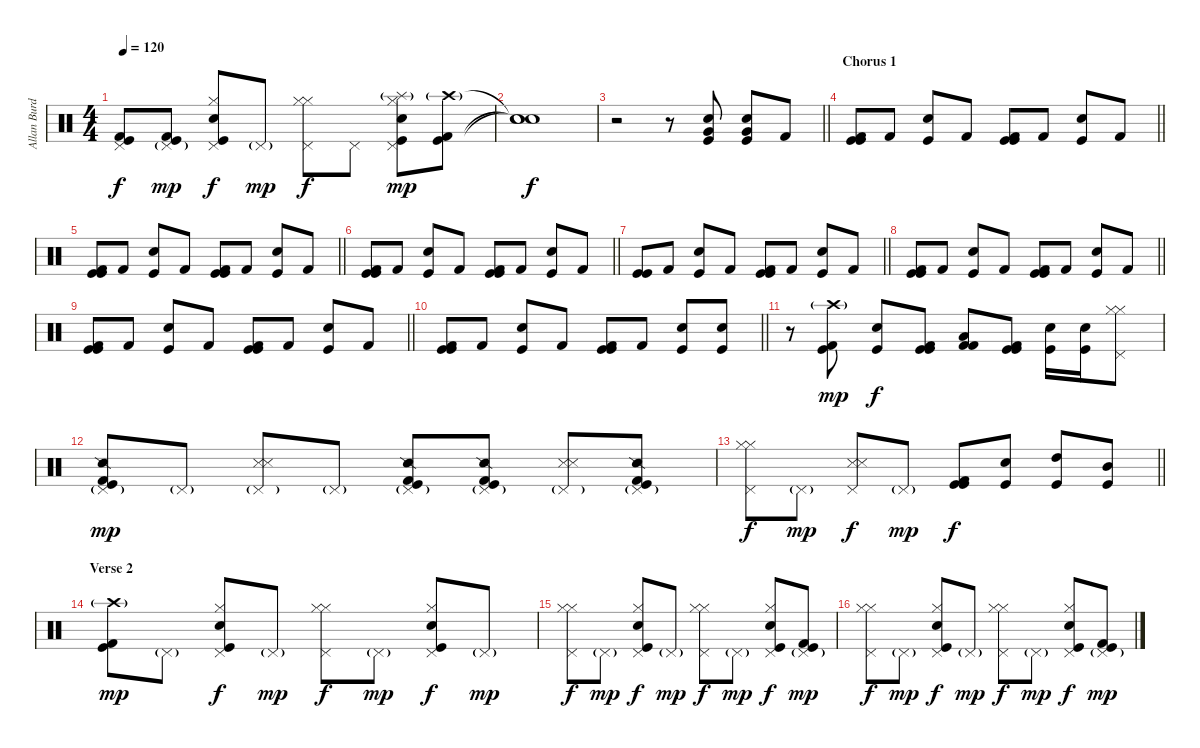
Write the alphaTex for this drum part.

\track ("Allan Burdeos(Drums)" "Allan Burd") {instrument percussion}
\staff {score}
\articulation defaults
\ts (4 4)
\tempo 120
\clef neutral
\ks c
("Pedal Hi-Hat (hit)" "Kick (hit) 2" "Kick (hit)").8{dy f} ("Pedal Hi-Hat (hit)"{g} "Kick (hit) 2" "Kick (hit)").8{dy mp} ("Pedal Hi-Hat (hit)" "Hi-Hat (closed)" "Kick (hit)" "Electric Snare (hit)").8{dy f} "Pedal Hi-Hat (hit)"{g}.8{dy mp} ("Pedal Hi-Hat (hit)" "Hi-Hat (closed)" "Hi-Hat (closed)").8{dy f} "Pedal Hi-Hat (hit)".8 ("Pedal Hi-Hat (hit)" "Hi-Hat (closed)" "Kick (hit)" "Electric Snare (hit)" "Splash (hit)"{g}).8{dy mp} ("Crash high (hit)"{g} "Kick (hit)" "Kick (hit) 2").8 |
("Snare (hit)"{t} "Snare (hit)"{t} "Snare (hit)"{t}).1{dy f} |
\barLineRight lightlight
r.2 r.8 ("Kick (hit)" "Electric Snare (hit)" "Very Low Tom (hit)").8 ("Kick (hit)" "Electric Snare (hit)" "Very Low Tom (hit)").8 "Kick (hit) 2".8 |
\section ("" "Chorus 1")
\barLineRight lightlight
("Kick (hit)" "Kick (hit)" "Kick (hit) 2").8{bd 30} "Kick (hit) 2".8 ("Kick (hit)" "Electric Snare (hit)").8 "Kick (hit) 2".8 ("Kick (hit)" "Kick (hit)" "Kick (hit) 2").8 "Kick (hit) 2".8 ("Kick (hit)" "Electric Snare (hit)").8 "Kick (hit) 2".8 |
\barLineRight lightlight
("Kick (hit)" "Kick (hit)" "Kick (hit) 2").8{bd 60} "Kick (hit) 2".8 ("Kick (hit)" "Electric Snare (hit)").8 "Kick (hit) 2".8 ("Kick (hit)" "Kick (hit)" "Kick (hit) 2").8 "Kick (hit) 2".8 ("Kick (hit)" "Electric Snare (hit)").8 "Kick (hit) 2".8 |
\barLineRight lightlight
("Kick (hit)" "Kick (hit)" "Kick (hit) 2").8{bd 60} "Kick (hit) 2".8 ("Kick (hit)" "Electric Snare (hit)").8 "Kick (hit) 2".8 ("Kick (hit)" "Kick (hit)" "Kick (hit) 2").8 "Kick (hit) 2".8 ("Kick (hit)" "Electric Snare (hit)").8 "Kick (hit) 2".8 |
\section ("" "")
\barLineRight lightlight
("Kick (hit)" "Kick (hit)").8 "Kick (hit) 2".8 ("Kick (hit)" "Electric Snare (hit)").8 "Kick (hit) 2".8 ("Kick (hit)" "Kick (hit)" "Kick (hit) 2").8 "Kick (hit) 2".8 ("Kick (hit)" "Electric Snare (hit)").8 "Kick (hit) 2".8 |
\barLineRight lightlight
("Kick (hit)" "Kick (hit)" "Kick (hit) 2").8{bd 60} "Kick (hit) 2".8 ("Kick (hit)" "Electric Snare (hit)").8 "Kick (hit) 2".8 ("Kick (hit)" "Kick (hit)" "Kick (hit) 2").8 "Kick (hit) 2".8 ("Kick (hit)" "Electric Snare (hit)").8 "Kick (hit) 2".8 |
\barLineRight lightlight
("Kick (hit)" "Kick (hit)" "Kick (hit) 2").8 "Kick (hit) 2".8 ("Kick (hit)" "Electric Snare (hit)").8 "Kick (hit) 2".8 ("Kick (hit)" "Kick (hit)" "Kick (hit) 2").8 "Kick (hit) 2".8 ("Kick (hit)" "Electric Snare (hit)").8 "Kick (hit) 2".8 |
\barLineRight lightlight
("Kick (hit)" "Kick (hit)" "Kick (hit) 2").8{bd 60} "Kick (hit) 2".8 ("Kick (hit)" "Electric Snare (hit)").8 "Kick (hit) 2".8 ("Kick (hit)" "Kick (hit)" "Kick (hit) 2").8 "Kick (hit) 2".8 ("Kick (hit)" "Electric Snare (hit)").8 ("Kick (hit)" "Electric Snare (hit)").8 |
r.8 ("Crash high (hit)"{g} "Kick (hit) 2" "Kick (hit)").8{dy mp} ("Kick (hit)" "Electric Snare (hit)").8{dy f} ("Kick (hit)" "Kick (hit)" "Kick (hit) 2").8 ("Kick (hit) 2" "Kick (hit) 2" "Low Tom (hit)").8 ("Kick (hit)" "Kick (hit)" "Kick (hit) 2").8 ("Kick (hit)" "Electric Snare (hit)").16 ("Kick (hit)" "Electric Snare (hit)").16 ("Hi-Hat (closed)" "Hi-Hat (closed)" "Pedal Hi-Hat (hit)").8 |
("Pedal Hi-Hat (hit)"{g} "Kick (hit)" "Kick (hit) 2" "Snare (side stick) 2").8{dy mp} "Pedal Hi-Hat (hit)"{g}.8 ("Pedal Hi-Hat (hit)"{g} "Metronome (hit)" "Snare (side stick) 3").8 "Pedal Hi-Hat (hit)"{g}.8 ("Pedal Hi-Hat (hit)"{g} "Kick (hit)" "Kick (hit) 2" "Snare (side stick) 2").8 ("Pedal Hi-Hat (hit)"{g} "Kick (hit)" "Kick (hit) 2" "Snare (side stick) 2").8 ("Pedal Hi-Hat (hit)"{g} "Metronome (hit)" "Snare (side stick) 3").8 ("Pedal Hi-Hat (hit)"{g} "Kick (hit)" "Kick (hit) 2" "Snare (side stick) 2").8 |
\barLineRight lightlight
("Hi-Hat (closed)" "Hi-Hat (closed)" "Pedal Hi-Hat (hit)").8{dy f} "Pedal Hi-Hat (hit)"{g}.8{dy mp} ("Pedal Hi-Hat (hit)" "Metronome (hit)" "Snare (side stick) 3").8{dy f} "Pedal Hi-Hat (hit)"{g}.8{dy mp} ("Kick (hit)" "Kick (hit)" "Kick (hit) 2").8{dy f} ("Kick (hit)" "Electric Snare (hit)").8 ("Kick (hit)" "High Tom (hit)").8 ("Kick (hit)" "Mid Tom (hit)").8 |
\section ("" "Verse 2")
("Crash high (hit)"{g} "Kick (hit) 2" "Kick (hit)").8{dy mp} "Pedal Hi-Hat (hit)"{g}.8 ("Pedal Hi-Hat (hit)" "Hi-Hat (closed)" "Kick (hit)" "Electric Snare (hit)").8{dy f} "Pedal Hi-Hat (hit)"{g}.8{dy mp} ("Pedal Hi-Hat (hit)" "Hi-Hat (closed)" "Hi-Hat (closed)").8{dy f} "Pedal Hi-Hat (hit)"{g}.8{dy mp} ("Pedal Hi-Hat (hit)" "Hi-Hat (closed)" "Kick (hit)" "Electric Snare (hit)").8{dy f} "Pedal Hi-Hat (hit)"{g}.8{dy mp} |
("Pedal Hi-Hat (hit)" "Hi-Hat (closed)" "Hi-Hat (closed)").8{dy f} "Pedal Hi-Hat (hit)"{g}.8{dy mp} ("Pedal Hi-Hat (hit)" "Hi-Hat (closed)" "Kick (hit)" "Electric Snare (hit)").8{dy f} "Pedal Hi-Hat (hit)"{g}.8{dy mp} ("Pedal Hi-Hat (hit)" "Hi-Hat (closed)" "Hi-Hat (closed)").8{dy f} "Pedal Hi-Hat (hit)"{g}.8{dy mp} ("Pedal Hi-Hat (hit)" "Hi-Hat (closed)" "Kick (hit)" "Electric Snare (hit)").8{dy f} ("Pedal Hi-Hat (hit)"{g} "Kick (hit) 2" "Kick (hit)").8{dy mp} |
("Pedal Hi-Hat (hit)" "Hi-Hat (closed)" "Hi-Hat (closed)").8{dy f} "Pedal Hi-Hat (hit)"{g}.8{dy mp} ("Pedal Hi-Hat (hit)" "Hi-Hat (closed)" "Kick (hit)" "Electric Snare (hit)").8{dy f} "Pedal Hi-Hat (hit)"{g}.8{dy mp} ("Pedal Hi-Hat (hit)" "Hi-Hat (closed)" "Hi-Hat (closed)").8{dy f} "Pedal Hi-Hat (hit)"{g}.8{dy mp} ("Pedal Hi-Hat (hit)" "Hi-Hat (closed)" "Kick (hit)" "Electric Snare (hit)").8{dy f} ("Pedal Hi-Hat (hit)"{g} "Kick (hit) 2" "Kick (hit)").8{dy mp}
